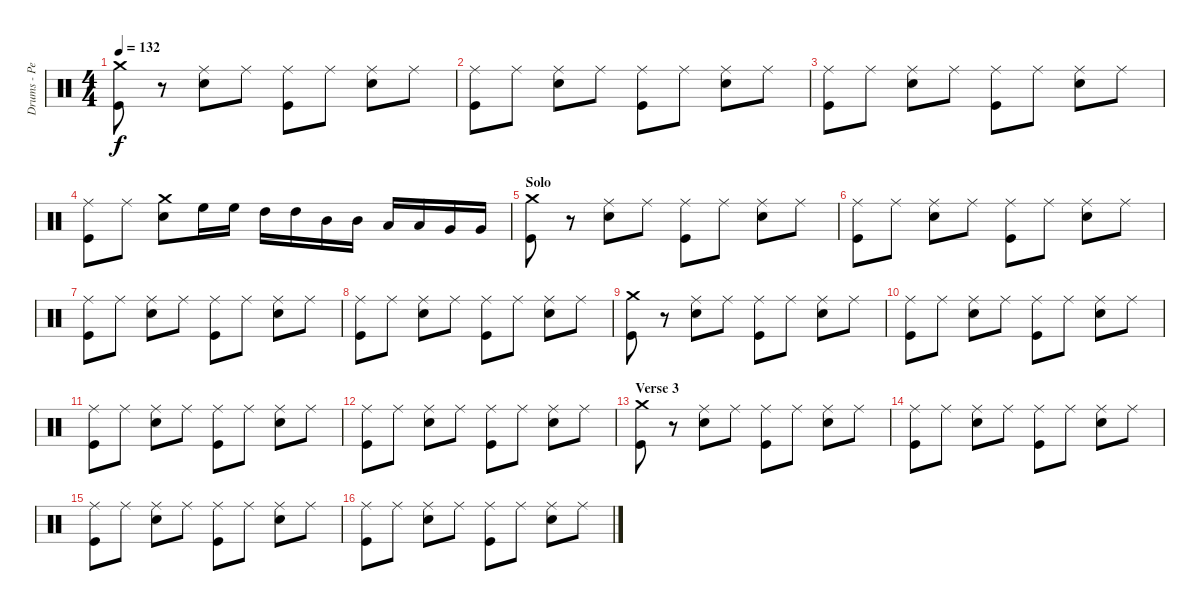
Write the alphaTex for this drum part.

\track ("Drums - Pete Gill" "Drums - Pe") {instrument percussion}
\staff {score}
\articulation defaults
\ts (4 4)
\tempo 132
\clef neutral
\ks c
("Crash medium (hit)" "Kick (hit)").8{dy f} r.8 ("Ride (middle)" "Snare (hit) 2").8 "Ride (middle)".8 ("Ride (middle)" "Kick (hit)").8 "Ride (middle)".8 ("Ride (middle)" "Snare (hit) 2").8 "Ride (middle)".8 |
("Ride (middle)" "Kick (hit)").8 "Ride (middle)".8 ("Ride (middle)" "Snare (hit) 2").8 "Ride (middle)".8 ("Ride (middle)" "Kick (hit)").8 "Ride (middle)".8 ("Ride (middle)" "Snare (hit) 2").8 "Ride (middle)".8 |
("Ride (middle)" "Kick (hit)").8 "Ride (middle)".8 ("Ride (middle)" "Snare (hit) 2").8 "Ride (middle)".8 ("Ride (middle)" "Kick (hit)").8 "Ride (middle)".8 ("Ride (middle)" "Snare (hit) 2").8 "Ride (middle)".8 |
("Ride (middle)" "Kick (hit)").8 "Ride (middle)".8 ("Crash medium (hit)" "Snare (hit) 2").8 "High Floor Tom (hit)".16 "High Floor Tom (hit)".16 "High Tom (hit)".16 "High Tom (hit)".16 "Mid Tom (hit)".16 "Mid Tom (hit)".16 "Low Tom (hit)".16 "Low Tom (hit)".16 "Very Low Tom (hit)".16 "Very Low Tom (hit)".16 |
\section ("" "Solo")
("Crash medium (hit)" "Kick (hit)").8 r.8 ("Ride (middle)" "Snare (hit) 2").8 "Ride (middle)".8 ("Ride (middle)" "Kick (hit)").8 "Ride (middle)".8 ("Ride (middle)" "Snare (hit) 2").8 "Ride (middle)".8 |
("Ride (middle)" "Kick (hit)").8 "Ride (middle)".8 ("Ride (middle)" "Snare (hit) 2").8 "Ride (middle)".8 ("Ride (middle)" "Kick (hit)").8 "Ride (middle)".8 ("Ride (middle)" "Snare (hit) 2").8 "Ride (middle)".8 |
("Ride (middle)" "Kick (hit)").8 "Ride (middle)".8 ("Ride (middle)" "Snare (hit) 2").8 "Ride (middle)".8 ("Ride (middle)" "Kick (hit)").8 "Ride (middle)".8 ("Ride (middle)" "Snare (hit) 2").8 "Ride (middle)".8 |
("Ride (middle)" "Kick (hit)").8 "Ride (middle)".8 ("Ride (middle)" "Snare (hit) 2").8 "Ride (middle)".8 ("Ride (middle)" "Kick (hit)").8 "Ride (middle)".8 ("Ride (middle)" "Snare (hit) 2").8 "Ride (middle)".8 |
("Crash medium (hit)" "Kick (hit)").8 r.8 ("Ride (middle)" "Snare (hit) 2").8 "Ride (middle)".8 ("Ride (middle)" "Kick (hit)").8 "Ride (middle)".8 ("Ride (middle)" "Snare (hit) 2").8 "Ride (middle)".8 |
("Ride (middle)" "Kick (hit)").8 "Ride (middle)".8 ("Ride (middle)" "Snare (hit) 2").8 "Ride (middle)".8 ("Ride (middle)" "Kick (hit)").8 "Ride (middle)".8 ("Ride (middle)" "Snare (hit) 2").8 "Ride (middle)".8 |
("Ride (middle)" "Kick (hit)").8 "Ride (middle)".8 ("Ride (middle)" "Snare (hit) 2").8 "Ride (middle)".8 ("Ride (middle)" "Kick (hit)").8 "Ride (middle)".8 ("Ride (middle)" "Snare (hit) 2").8 "Ride (middle)".8 |
("Ride (middle)" "Kick (hit)").8 "Ride (middle)".8 ("Ride (middle)" "Snare (hit) 2").8 "Ride (middle)".8 ("Ride (middle)" "Kick (hit)").8 "Ride (middle)".8 ("Ride (middle)" "Snare (hit) 2").8 "Ride (middle)".8 |
\section ("" "Verse 3")
("Crash medium (hit)" "Kick (hit)").8 r.8 ("Ride (middle)" "Snare (hit) 2").8 "Ride (middle)".8 ("Ride (middle)" "Kick (hit)").8 "Ride (middle)".8 ("Ride (middle)" "Snare (hit) 2").8 "Ride (middle)".8 |
("Ride (middle)" "Kick (hit)").8 "Ride (middle)".8 ("Ride (middle)" "Snare (hit) 2").8 "Ride (middle)".8 ("Ride (middle)" "Kick (hit)").8 "Ride (middle)".8 ("Ride (middle)" "Snare (hit) 2").8 "Ride (middle)".8 |
("Ride (middle)" "Kick (hit)").8 "Ride (middle)".8 ("Ride (middle)" "Snare (hit) 2").8 "Ride (middle)".8 ("Ride (middle)" "Kick (hit)").8 "Ride (middle)".8 ("Ride (middle)" "Snare (hit) 2").8 "Ride (middle)".8 |
("Ride (middle)" "Kick (hit)").8 "Ride (middle)".8 ("Ride (middle)" "Snare (hit) 2").8 "Ride (middle)".8 ("Ride (middle)" "Kick (hit)").8 "Ride (middle)".8 ("Ride (middle)" "Snare (hit) 2").8 "Ride (middle)".8
